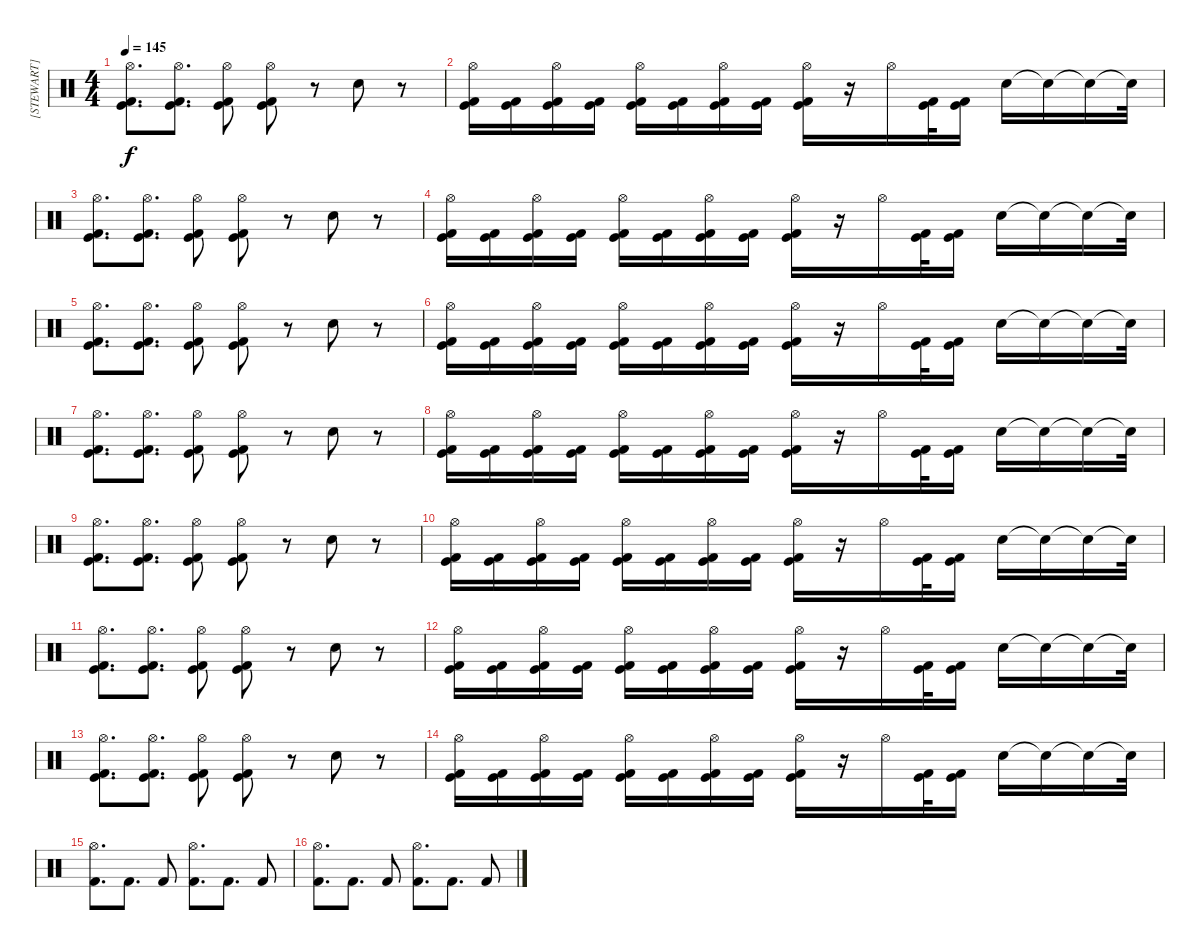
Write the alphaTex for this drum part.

\track ("[STEWART]" "[STEWART]") {instrument percussion}
\staff {score}
\articulation defaults
\ts (4 4)
\tempo 145
\clef neutral
\ks c
("Hi-Hat (open)" "Kick (hit) 2" "Kick (hit)").8{d dy f} ("Hi-Hat (open)" "Kick (hit) 2" "Kick (hit)").8{d} ("Hi-Hat (open)" "Kick (hit) 2" "Kick (hit)").8 ("Hi-Hat (open)" "Kick (hit) 2" "Kick (hit)").8 r.8 "Electric Snare (hit)".8 r.8 |
("Hi-Hat (open)" "Kick (hit) 2" "Kick (hit)").16 ("Kick (hit) 2" "Kick (hit)").16 ("Hi-Hat (open)" "Kick (hit) 2" "Kick (hit)").16 ("Kick (hit) 2" "Kick (hit)").16 ("Hi-Hat (open)" "Kick (hit) 2" "Kick (hit)").16 ("Kick (hit) 2" "Kick (hit)").16 ("Hi-Hat (open)" "Kick (hit) 2" "Kick (hit)").16 ("Kick (hit) 2" "Kick (hit)").16 ("Hi-Hat (open)" "Kick (hit) 2" "Kick (hit)").16 r.16 "Hi-Hat (open)".16 ("Kick (hit) 2" "Kick (hit)").32 ("Kick (hit) 2" "Kick (hit)").16 "Electric Snare (hit)".16 "Electric Snare (hit)"{t}.16 "Electric Snare (hit)"{t}.16 "Electric Snare (hit)"{t}.32 |
("Hi-Hat (open)" "Kick (hit) 2" "Kick (hit)").8{d} ("Hi-Hat (open)" "Kick (hit) 2" "Kick (hit)").8{d} ("Hi-Hat (open)" "Kick (hit) 2" "Kick (hit)").8 ("Hi-Hat (open)" "Kick (hit) 2" "Kick (hit)").8 r.8 "Electric Snare (hit)".8 r.8 |
("Hi-Hat (open)" "Kick (hit) 2" "Kick (hit)").16 ("Kick (hit) 2" "Kick (hit)").16 ("Hi-Hat (open)" "Kick (hit) 2" "Kick (hit)").16 ("Kick (hit) 2" "Kick (hit)").16 ("Hi-Hat (open)" "Kick (hit) 2" "Kick (hit)").16 ("Kick (hit) 2" "Kick (hit)").16 ("Hi-Hat (open)" "Kick (hit) 2" "Kick (hit)").16 ("Kick (hit) 2" "Kick (hit)").16 ("Hi-Hat (open)" "Kick (hit) 2" "Kick (hit)").16 r.16 "Hi-Hat (open)".16 ("Kick (hit) 2" "Kick (hit)").32 ("Kick (hit) 2" "Kick (hit)").16 "Electric Snare (hit)".16 "Electric Snare (hit)"{t}.16 "Electric Snare (hit)"{t}.16 "Electric Snare (hit)"{t}.32 |
("Hi-Hat (open)" "Kick (hit) 2" "Kick (hit)").8{d} ("Hi-Hat (open)" "Kick (hit) 2" "Kick (hit)").8{d} ("Hi-Hat (open)" "Kick (hit) 2" "Kick (hit)").8 ("Hi-Hat (open)" "Kick (hit) 2" "Kick (hit)").8 r.8 "Electric Snare (hit)".8 r.8 |
("Hi-Hat (open)" "Kick (hit) 2" "Kick (hit)").16 ("Kick (hit) 2" "Kick (hit)").16 ("Hi-Hat (open)" "Kick (hit) 2" "Kick (hit)").16 ("Kick (hit) 2" "Kick (hit)").16 ("Hi-Hat (open)" "Kick (hit) 2" "Kick (hit)").16 ("Kick (hit) 2" "Kick (hit)").16 ("Hi-Hat (open)" "Kick (hit) 2" "Kick (hit)").16 ("Kick (hit) 2" "Kick (hit)").16 ("Hi-Hat (open)" "Kick (hit) 2" "Kick (hit)").16 r.16 "Hi-Hat (open)".16 ("Kick (hit) 2" "Kick (hit)").32 ("Kick (hit) 2" "Kick (hit)").16 "Electric Snare (hit)".16 "Electric Snare (hit)"{t}.16 "Electric Snare (hit)"{t}.16 "Electric Snare (hit)"{t}.32 |
("Hi-Hat (open)" "Kick (hit) 2" "Kick (hit)").8{d} ("Hi-Hat (open)" "Kick (hit) 2" "Kick (hit)").8{d} ("Hi-Hat (open)" "Kick (hit) 2" "Kick (hit)").8 ("Hi-Hat (open)" "Kick (hit) 2" "Kick (hit)").8 r.8 "Electric Snare (hit)".8 r.8 |
("Hi-Hat (open)" "Kick (hit) 2" "Kick (hit)").16 ("Kick (hit) 2" "Kick (hit)").16 ("Hi-Hat (open)" "Kick (hit) 2" "Kick (hit)").16 ("Kick (hit) 2" "Kick (hit)").16 ("Hi-Hat (open)" "Kick (hit) 2" "Kick (hit)").16 ("Kick (hit) 2" "Kick (hit)").16 ("Hi-Hat (open)" "Kick (hit) 2" "Kick (hit)").16 ("Kick (hit) 2" "Kick (hit)").16 ("Hi-Hat (open)" "Kick (hit) 2" "Kick (hit)").16 r.16 "Hi-Hat (open)".16 ("Kick (hit) 2" "Kick (hit)").32 ("Kick (hit) 2" "Kick (hit)").16 "Electric Snare (hit)".16 "Electric Snare (hit)"{t}.16 "Electric Snare (hit)"{t}.16 "Electric Snare (hit)"{t}.32 |
("Hi-Hat (open)" "Kick (hit) 2" "Kick (hit)").8{d} ("Hi-Hat (open)" "Kick (hit) 2" "Kick (hit)").8{d} ("Hi-Hat (open)" "Kick (hit) 2" "Kick (hit)").8 ("Hi-Hat (open)" "Kick (hit) 2" "Kick (hit)").8 r.8 "Electric Snare (hit)".8 r.8 |
("Hi-Hat (open)" "Kick (hit) 2" "Kick (hit)").16 ("Kick (hit) 2" "Kick (hit)").16 ("Hi-Hat (open)" "Kick (hit) 2" "Kick (hit)").16 ("Kick (hit) 2" "Kick (hit)").16 ("Hi-Hat (open)" "Kick (hit) 2" "Kick (hit)").16 ("Kick (hit) 2" "Kick (hit)").16 ("Hi-Hat (open)" "Kick (hit) 2" "Kick (hit)").16 ("Kick (hit) 2" "Kick (hit)").16 ("Hi-Hat (open)" "Kick (hit) 2" "Kick (hit)").16 r.16 "Hi-Hat (open)".16 ("Kick (hit) 2" "Kick (hit)").32 ("Kick (hit) 2" "Kick (hit)").16 "Electric Snare (hit)".16 "Electric Snare (hit)"{t}.16 "Electric Snare (hit)"{t}.16 "Electric Snare (hit)"{t}.32 |
("Hi-Hat (open)" "Kick (hit) 2" "Kick (hit)").8{d} ("Hi-Hat (open)" "Kick (hit) 2" "Kick (hit)").8{d} ("Hi-Hat (open)" "Kick (hit) 2" "Kick (hit)").8 ("Hi-Hat (open)" "Kick (hit) 2" "Kick (hit)").8 r.8 "Electric Snare (hit)".8 r.8 |
("Hi-Hat (open)" "Kick (hit) 2" "Kick (hit)").16 ("Kick (hit) 2" "Kick (hit)").16 ("Hi-Hat (open)" "Kick (hit) 2" "Kick (hit)").16 ("Kick (hit) 2" "Kick (hit)").16 ("Hi-Hat (open)" "Kick (hit) 2" "Kick (hit)").16 ("Kick (hit) 2" "Kick (hit)").16 ("Hi-Hat (open)" "Kick (hit) 2" "Kick (hit)").16 ("Kick (hit) 2" "Kick (hit)").16 ("Hi-Hat (open)" "Kick (hit) 2" "Kick (hit)").16 r.16 "Hi-Hat (open)".16 ("Kick (hit) 2" "Kick (hit)").32 ("Kick (hit) 2" "Kick (hit)").16 "Electric Snare (hit)".16 "Electric Snare (hit)"{t}.16 "Electric Snare (hit)"{t}.16 "Electric Snare (hit)"{t}.32 |
("Hi-Hat (open)" "Kick (hit) 2" "Kick (hit)").8{d} ("Hi-Hat (open)" "Kick (hit) 2" "Kick (hit)").8{d} ("Hi-Hat (open)" "Kick (hit) 2" "Kick (hit)").8 ("Hi-Hat (open)" "Kick (hit) 2" "Kick (hit)").8 r.8 "Electric Snare (hit)".8 r.8 |
("Hi-Hat (open)" "Kick (hit) 2" "Kick (hit)").16 ("Kick (hit) 2" "Kick (hit)").16 ("Hi-Hat (open)" "Kick (hit) 2" "Kick (hit)").16 ("Kick (hit) 2" "Kick (hit)").16 ("Hi-Hat (open)" "Kick (hit) 2" "Kick (hit)").16 ("Kick (hit) 2" "Kick (hit)").16 ("Hi-Hat (open)" "Kick (hit) 2" "Kick (hit)").16 ("Kick (hit) 2" "Kick (hit)").16 ("Hi-Hat (open)" "Kick (hit) 2" "Kick (hit)").16 r.16 "Hi-Hat (open)".16 ("Kick (hit) 2" "Kick (hit)").32 ("Kick (hit) 2" "Kick (hit)").16 "Electric Snare (hit)".16 "Electric Snare (hit)"{t}.16 "Electric Snare (hit)"{t}.16 "Electric Snare (hit)"{t}.32 |
("Hi-Hat (open)" "Kick (hit) 2").8{d} "Kick (hit) 2".8{d} "Kick (hit) 2".8 ("Hi-Hat (open)" "Kick (hit) 2").8{d} "Kick (hit) 2".8{d} "Kick (hit) 2".8 |
("Hi-Hat (open)" "Kick (hit) 2").8{d} "Kick (hit) 2".8{d} "Kick (hit) 2".8 ("Hi-Hat (open)" "Kick (hit) 2").8{d} "Kick (hit) 2".8{d} "Kick (hit) 2".8
